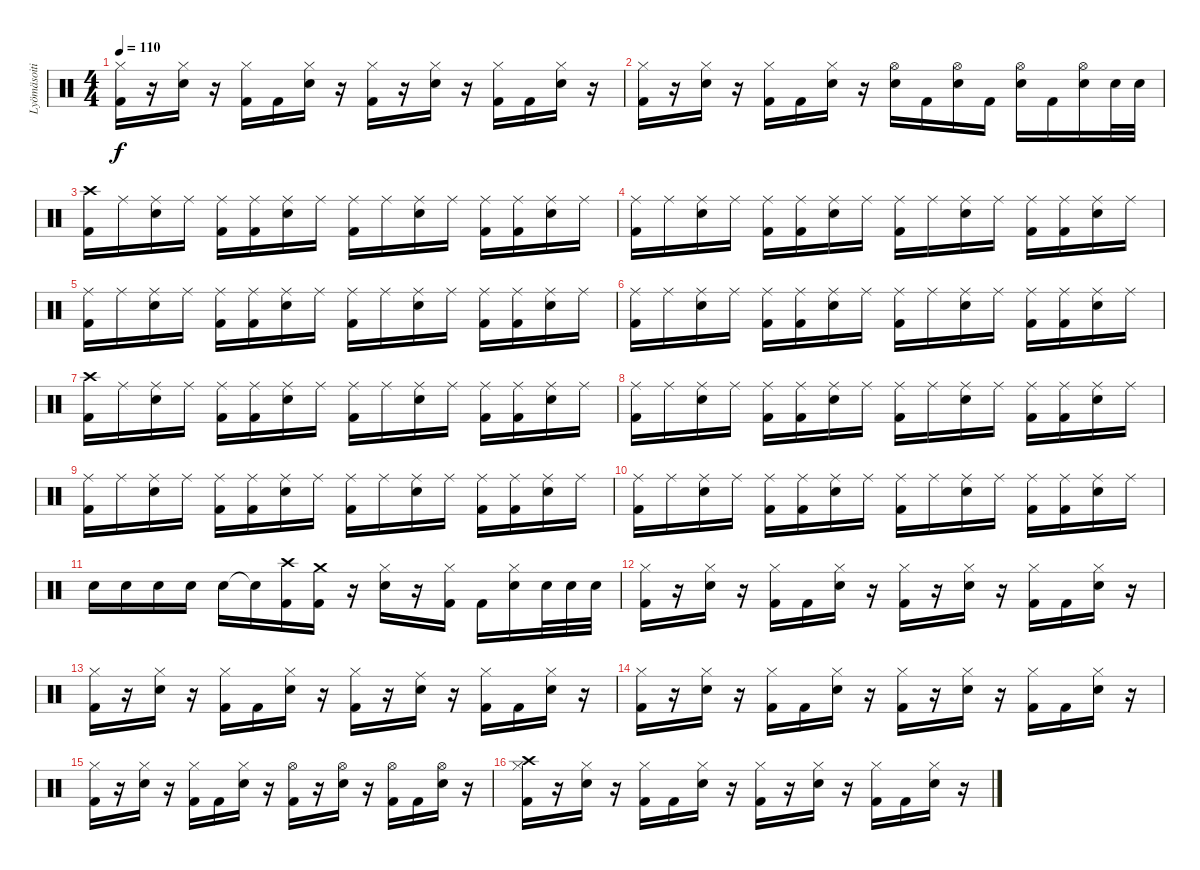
\track ("Lyömäsoitin" "Lyömäsoiti") {instrument percussion}
\staff {score}
\articulation defaults
\ts (4 4)
\tempo 110
\clef neutral
\ks c
("Hi-Hat (closed)" "Kick (hit) 2").16{dy f} r.16 ("Hi-Hat (closed)" "Snare (hit) 2").16 r.16 ("Hi-Hat (closed)" "Kick (hit) 2").16 "Kick (hit) 2".16 ("Hi-Hat (closed)" "Snare (hit) 2").16 r.16 ("Hi-Hat (closed)" "Kick (hit) 2").16 r.16 ("Hi-Hat (closed)" "Snare (hit) 2").16 r.16 ("Hi-Hat (closed)" "Kick (hit) 2").16 "Kick (hit) 2".16 ("Hi-Hat (closed)" "Snare (hit) 2").16 r.16 |
("Hi-Hat (closed)" "Kick (hit) 2").16 r.16 ("Hi-Hat (closed)" "Snare (hit) 2").16 r.16 ("Hi-Hat (closed)" "Kick (hit) 2").16 "Kick (hit) 2".16 ("Hi-Hat (closed)" "Snare (hit) 2").16 r.16 ("Hi-Hat (open)" "Snare (hit) 2").16 "Kick (hit) 2".16 ("Hi-Hat (open)" "Snare (hit) 2").16 "Kick (hit) 2".16 ("Hi-Hat (open)" "Snare (hit) 2").16 "Kick (hit) 2".16 ("Hi-Hat (open)" "Snare (hit) 2").16 "Snare (hit) 2".32 "Snare (hit) 2".32 |
("Crash high (hit)" "Kick (hit) 2").16 "Ride (middle)".16 ("Ride (middle)" "Snare (hit) 2").16 "Ride (middle)".16 ("Ride (middle)" "Kick (hit) 2").16 ("Ride (middle)" "Kick (hit) 2").16 ("Ride (middle)" "Snare (hit) 2").16 "Ride (middle)".16 ("Ride (middle)" "Kick (hit) 2").16 "Ride (middle)".16 ("Ride (middle)" "Snare (hit) 2").16 "Ride (middle)".16 ("Ride (middle)" "Kick (hit) 2").16 ("Ride (middle)" "Kick (hit) 2").16 ("Ride (middle)" "Snare (hit) 2").16 "Ride (middle)".16 |
("Ride (middle)" "Kick (hit) 2").16 "Ride (middle)".16 ("Ride (middle)" "Snare (hit) 2").16 "Ride (middle)".16 ("Ride (middle)" "Kick (hit) 2").16 ("Ride (middle)" "Kick (hit) 2").16 ("Ride (middle)" "Snare (hit) 2").16 "Ride (middle)".16 ("Ride (middle)" "Kick (hit) 2").16 "Ride (middle)".16 ("Ride (middle)" "Snare (hit) 2").16 "Ride (middle)".16 ("Ride (middle)" "Kick (hit) 2").16 ("Ride (middle)" "Kick (hit) 2").16 ("Ride (middle)" "Snare (hit) 2").16 "Ride (middle)".16 |
("Ride (middle)" "Kick (hit) 2").16 "Ride (middle)".16 ("Ride (middle)" "Snare (hit) 2").16 "Ride (middle)".16 ("Ride (middle)" "Kick (hit) 2").16 ("Ride (middle)" "Kick (hit) 2").16 ("Ride (middle)" "Snare (hit) 2").16 "Ride (middle)".16 ("Ride (middle)" "Kick (hit) 2").16 "Ride (middle)".16 ("Ride (middle)" "Snare (hit) 2").16 "Ride (middle)".16 ("Ride (middle)" "Kick (hit) 2").16 ("Ride (middle)" "Kick (hit) 2").16 ("Ride (middle)" "Snare (hit) 2").16 "Ride (middle)".16 |
("Ride (middle)" "Kick (hit) 2").16 "Ride (middle)".16 ("Ride (middle)" "Snare (hit) 2").16 "Ride (middle)".16 ("Ride (middle)" "Kick (hit) 2").16 ("Ride (middle)" "Kick (hit) 2").16 ("Ride (middle)" "Snare (hit) 2").16 "Ride (middle)".16 ("Ride (middle)" "Kick (hit) 2").16 "Ride (middle)".16 ("Ride (middle)" "Snare (hit) 2").16 "Ride (middle)".16 ("Ride (middle)" "Kick (hit) 2").16 ("Ride (middle)" "Kick (hit) 2").16 ("Ride (middle)" "Snare (hit) 2").16 "Ride (middle)".16 |
("Crash high (hit)" "Kick (hit) 2").16 "Ride (middle)".16 ("Ride (middle)" "Snare (hit) 2").16 "Ride (middle)".16 ("Ride (middle)" "Kick (hit) 2").16 ("Ride (middle)" "Kick (hit) 2").16 ("Ride (middle)" "Snare (hit) 2").16 "Ride (middle)".16 ("Ride (middle)" "Kick (hit) 2").16 "Ride (middle)".16 ("Ride (middle)" "Snare (hit) 2").16 "Ride (middle)".16 ("Ride (middle)" "Kick (hit) 2").16 ("Ride (middle)" "Kick (hit) 2").16 ("Ride (middle)" "Snare (hit) 2").16 "Ride (middle)".16 |
("Ride (middle)" "Kick (hit) 2").16 "Ride (middle)".16 ("Ride (middle)" "Snare (hit) 2").16 "Ride (middle)".16 ("Ride (middle)" "Kick (hit) 2").16 ("Ride (middle)" "Kick (hit) 2").16 ("Ride (middle)" "Snare (hit) 2").16 "Ride (middle)".16 ("Ride (middle)" "Kick (hit) 2").16 "Ride (middle)".16 ("Ride (middle)" "Snare (hit) 2").16 "Ride (middle)".16 ("Ride (middle)" "Kick (hit) 2").16 ("Ride (middle)" "Kick (hit) 2").16 ("Ride (middle)" "Snare (hit) 2").16 "Ride (middle)".16 |
("Ride (middle)" "Kick (hit) 2").16 "Ride (middle)".16 ("Ride (middle)" "Snare (hit) 2").16 "Ride (middle)".16 ("Ride (middle)" "Kick (hit) 2").16 ("Ride (middle)" "Kick (hit) 2").16 ("Ride (middle)" "Snare (hit) 2").16 "Ride (middle)".16 ("Ride (middle)" "Kick (hit) 2").16 "Ride (middle)".16 ("Ride (middle)" "Snare (hit) 2").16 "Ride (middle)".16 ("Ride (middle)" "Kick (hit) 2").16 ("Ride (middle)" "Kick (hit) 2").16 ("Ride (middle)" "Snare (hit) 2").16 "Ride (middle)".16 |
("Ride (middle)" "Kick (hit) 2").16 "Ride (middle)".16 ("Ride (middle)" "Snare (hit) 2").16 "Ride (middle)".16 ("Ride (middle)" "Kick (hit) 2").16 ("Ride (middle)" "Kick (hit) 2").16 ("Ride (middle)" "Snare (hit) 2").16 "Ride (middle)".16 ("Ride (middle)" "Kick (hit) 2").16 "Ride (middle)".16 ("Ride (middle)" "Snare (hit) 2").16 "Ride (middle)".16 ("Ride (middle)" "Kick (hit) 2").16 ("Ride (middle)" "Kick (hit) 2").16 ("Ride (middle)" "Snare (hit) 2").16 "Ride (middle)".16 |
"Snare (hit) 2".16 "Snare (hit) 2".16 "Snare (hit) 2".16 "Snare (hit) 2".16 "Snare (hit) 2".16 "Snare (hit)"{t}.16 ("Crash high (hit)" "Kick (hit) 2").16 ("Crash medium (hit)" "Kick (hit) 2").16 r.16 ("Hi-Hat (closed)" "Snare (hit) 2").16 r.16 ("Hi-Hat (closed)" "Kick (hit) 2").16 "Kick (hit) 2".16 ("Hi-Hat (closed)" "Snare (hit) 2").16 "Snare (hit) 2".32 "Snare (hit) 2".32 "Snare (hit) 2".32 |
("Hi-Hat (closed)" "Kick (hit) 2").16 r.16 ("Hi-Hat (closed)" "Snare (hit) 2").16 r.16 ("Hi-Hat (closed)" "Kick (hit) 2").16 "Kick (hit) 2".16 ("Hi-Hat (closed)" "Snare (hit) 2").16 r.16 ("Hi-Hat (closed)" "Kick (hit) 2").16 r.16 ("Hi-Hat (closed)" "Snare (hit) 2").16 r.16 ("Hi-Hat (closed)" "Kick (hit) 2").16 "Kick (hit) 2".16 ("Hi-Hat (closed)" "Snare (hit) 2").16 r.16 |
("Hi-Hat (closed)" "Kick (hit) 2").16 r.16 ("Hi-Hat (closed)" "Snare (hit) 2").16 r.16 ("Hi-Hat (closed)" "Kick (hit) 2").16 "Kick (hit) 2".16 ("Hi-Hat (closed)" "Snare (hit) 2").16 r.16 ("Hi-Hat (closed)" "Kick (hit) 2").16 r.16 ("Ride (middle)" "Snare (hit) 2").16 r.16 ("Hi-Hat (closed)" "Kick (hit) 2").16 "Kick (hit) 2".16 ("Hi-Hat (closed)" "Snare (hit) 2").16 r.16 |
("Hi-Hat (closed)" "Kick (hit) 2").16 r.16 ("Hi-Hat (closed)" "Snare (hit) 2").16 r.16 ("Hi-Hat (closed)" "Kick (hit) 2").16 "Kick (hit) 2".16 ("Hi-Hat (closed)" "Snare (hit) 2").16 r.16 ("Hi-Hat (closed)" "Kick (hit) 2").16 r.16 ("Hi-Hat (closed)" "Snare (hit) 2").16 r.16 ("Hi-Hat (closed)" "Kick (hit) 2").16 "Kick (hit) 2".16 ("Hi-Hat (closed)" "Snare (hit) 2").16 r.16 |
("Hi-Hat (closed)" "Kick (hit) 2").16 r.16 ("Hi-Hat (closed)" "Snare (hit) 2").16 r.16 ("Hi-Hat (closed)" "Kick (hit) 2").16 "Kick (hit) 2".16 ("Hi-Hat (closed)" "Snare (hit) 2").16 r.16 ("Hi-Hat (open)" "Kick (hit) 2").16 r.16 ("Hi-Hat (open)" "Snare (hit) 2").16 r.16 ("Hi-Hat (open)" "Kick (hit) 2").16 "Kick (hit) 2".16 ("Hi-Hat (open)" "Snare (hit) 2").16 r.16 |
("Crash high (hit)" "Hi-Hat (closed)" "Kick (hit) 2").16 r.16 ("Hi-Hat (closed)" "Snare (hit) 2").16 r.16 ("Hi-Hat (closed)" "Kick (hit) 2").16 "Kick (hit) 2".16 ("Hi-Hat (closed)" "Snare (hit) 2").16 r.16 ("Hi-Hat (closed)" "Kick (hit) 2").16 r.16 ("Hi-Hat (closed)" "Snare (hit) 2").16 r.16 ("Hi-Hat (closed)" "Kick (hit) 2").16 "Kick (hit) 2".16 ("Hi-Hat (closed)" "Snare (hit) 2").16 r.16
